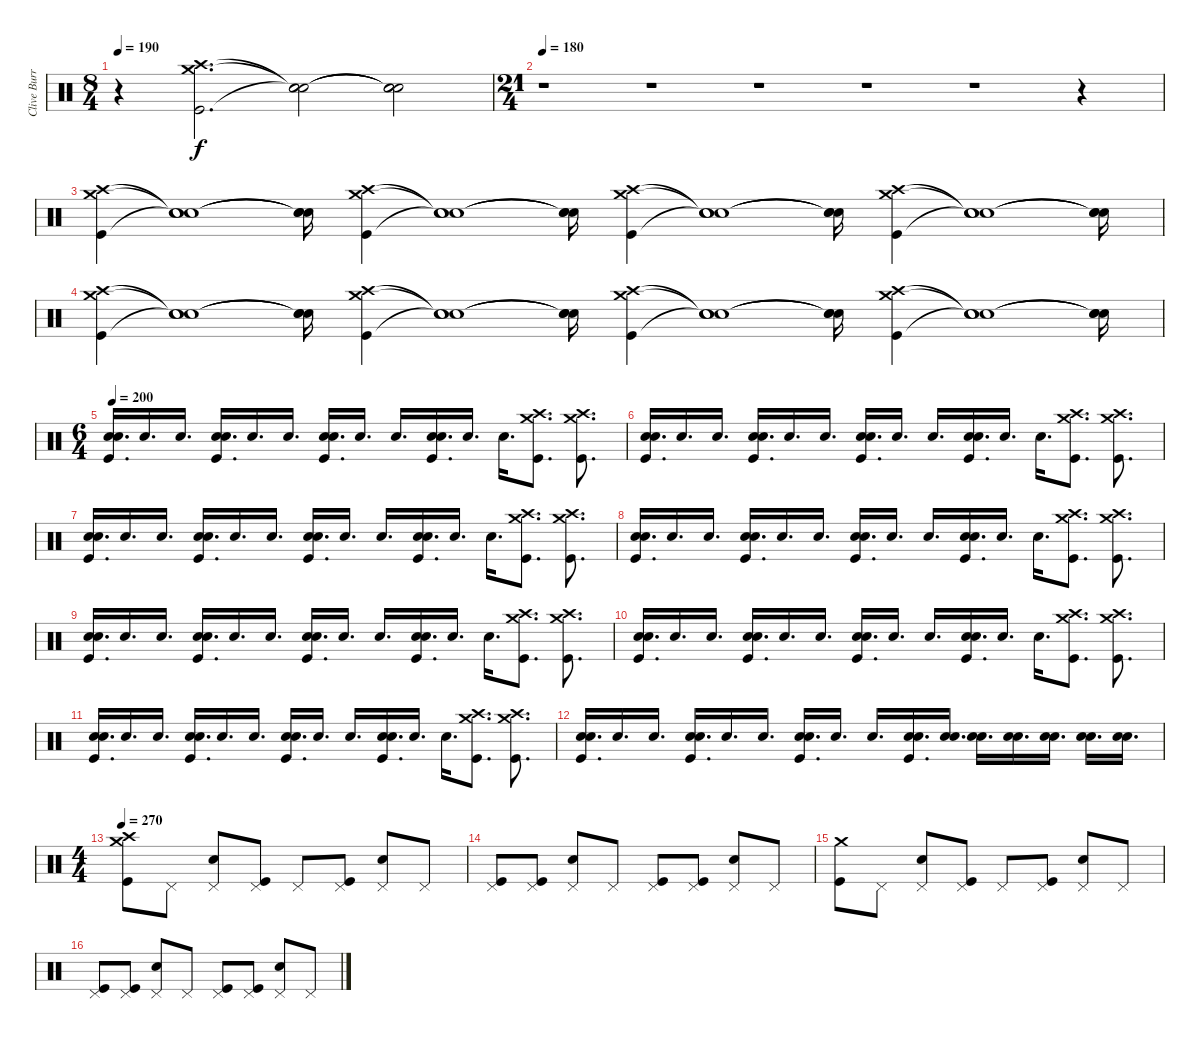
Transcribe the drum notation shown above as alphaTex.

\track ("Clive Burr" "Clive Burr") {instrument percussion}
\staff {score}
\articulation defaults
\ts (8 4)
\tempo 190
\clef neutral
\ks c
r.4{dy f} ("Crash medium (hit)" "Crash high (hit)" "Kick (hit)").2{d} ("Snare (hit)"{t} "Snare (hit)"{t} "Snare (hit)"{t}).2 ("Snare (hit)"{t} "Snare (hit)"{t} "Snare (hit)"{t}).2 |
\ts (21 4)
\tempo 180
r.1 r.1 r.1 r.1 r.1 r.4 |
("Crash medium (hit)" "Crash high (hit)" "Kick (hit)").4 ("Snare (hit)"{t} "Snare (hit)"{t} "Snare (hit)"{t}).1 ("Snare (hit)"{t} "Snare (hit)"{t} "Snare (hit)"{t}).16 ("Crash medium (hit)" "Crash high (hit)" "Kick (hit)").4 ("Snare (hit)"{t} "Snare (hit)"{t} "Snare (hit)"{t}).1 ("Snare (hit)"{t} "Snare (hit)"{t} "Snare (hit)"{t}).16 ("Crash medium (hit)" "Crash high (hit)" "Kick (hit)").4 ("Snare (hit)"{t} "Snare (hit)"{t} "Snare (hit)"{t}).1 ("Snare (hit)"{t} "Snare (hit)"{t} "Snare (hit)"{t}).16 ("Crash medium (hit)" "Crash high (hit)" "Kick (hit)").4 ("Snare (hit)"{t} "Snare (hit)"{t} "Snare (hit)"{t}).1 ("Snare (hit)"{t} "Snare (hit)"{t} "Snare (hit)"{t}).16 |
("Crash medium (hit)" "Crash high (hit)" "Kick (hit)").4 ("Snare (hit)"{t} "Snare (hit)"{t} "Snare (hit)"{t}).1 ("Snare (hit)"{t} "Snare (hit)"{t} "Snare (hit)"{t}).16 ("Crash medium (hit)" "Crash high (hit)" "Kick (hit)").4 ("Snare (hit)"{t} "Snare (hit)"{t} "Snare (hit)"{t}).1 ("Snare (hit)"{t} "Snare (hit)"{t} "Snare (hit)"{t}).16 ("Crash medium (hit)" "Crash high (hit)" "Kick (hit)").4 ("Snare (hit)"{t} "Snare (hit)"{t} "Snare (hit)"{t}).1 ("Snare (hit)"{t} "Snare (hit)"{t} "Snare (hit)"{t}).16 ("Crash medium (hit)" "Crash high (hit)" "Kick (hit)").4 ("Snare (hit)"{t} "Snare (hit)"{t} "Snare (hit)"{t}).1 ("Snare (hit)"{t} "Snare (hit)"{t} "Snare (hit)"{t}).16 |
\ts (6 4)
\tempo 200
("Snare (hit) 2" "Snare (hit) 2" "Kick (hit)").16{d} "Snare (hit) 2".16{d} "Snare (hit) 2".16{d} ("Snare (hit) 2" "Snare (hit) 2" "Kick (hit)").16{d} "Snare (hit) 2".16{d} "Snare (hit) 2".16{d} ("Snare (hit) 2" "Snare (hit) 2" "Kick (hit)").16{d} "Snare (hit) 2".16{d} "Snare (hit) 2".16{d} ("Snare (hit) 2" "Snare (hit) 2" "Kick (hit)").16{d} "Snare (hit) 2".16{d} "Snare (hit) 2".16{d} ("Crash medium (hit)" "Crash high (hit)" "Kick (hit)").8{d} ("Crash medium (hit)" "Crash high (hit)" "Kick (hit)").8{d} |
("Snare (hit) 2" "Snare (hit) 2" "Kick (hit)").16{d} "Snare (hit) 2".16{d} "Snare (hit) 2".16{d} ("Snare (hit) 2" "Snare (hit) 2" "Kick (hit)").16{d} "Snare (hit) 2".16{d} "Snare (hit) 2".16{d} ("Snare (hit) 2" "Snare (hit) 2" "Kick (hit)").16{d} "Snare (hit) 2".16{d} "Snare (hit) 2".16{d} ("Snare (hit) 2" "Snare (hit) 2" "Kick (hit)").16{d} "Snare (hit) 2".16{d} "Snare (hit) 2".16{d} ("Crash medium (hit)" "Crash high (hit)" "Kick (hit)").8{d} ("Crash medium (hit)" "Crash high (hit)" "Kick (hit)").8{d} |
("Snare (hit) 2" "Snare (hit) 2" "Kick (hit)").16{d} "Snare (hit) 2".16{d} "Snare (hit) 2".16{d} ("Snare (hit) 2" "Snare (hit) 2" "Kick (hit)").16{d} "Snare (hit) 2".16{d} "Snare (hit) 2".16{d} ("Snare (hit) 2" "Snare (hit) 2" "Kick (hit)").16{d} "Snare (hit) 2".16{d} "Snare (hit) 2".16{d} ("Snare (hit) 2" "Snare (hit) 2" "Kick (hit)").16{d} "Snare (hit) 2".16{d} "Snare (hit) 2".16{d} ("Crash medium (hit)" "Crash high (hit)" "Kick (hit)").8{d} ("Crash medium (hit)" "Crash high (hit)" "Kick (hit)").8{d} |
("Snare (hit) 2" "Snare (hit) 2" "Kick (hit)").16{d} "Snare (hit) 2".16{d} "Snare (hit) 2".16{d} ("Snare (hit) 2" "Snare (hit) 2" "Kick (hit)").16{d} "Snare (hit) 2".16{d} "Snare (hit) 2".16{d} ("Snare (hit) 2" "Snare (hit) 2" "Kick (hit)").16{d} "Snare (hit) 2".16{d} "Snare (hit) 2".16{d} ("Snare (hit) 2" "Snare (hit) 2" "Kick (hit)").16{d} "Snare (hit) 2".16{d} "Snare (hit) 2".16{d} ("Crash medium (hit)" "Crash high (hit)" "Kick (hit)").8{d} ("Crash medium (hit)" "Crash high (hit)" "Kick (hit)").8{d} |
("Snare (hit) 2" "Snare (hit) 2" "Kick (hit)").16{d} "Snare (hit) 2".16{d} "Snare (hit) 2".16{d} ("Snare (hit) 2" "Snare (hit) 2" "Kick (hit)").16{d} "Snare (hit) 2".16{d} "Snare (hit) 2".16{d} ("Snare (hit) 2" "Snare (hit) 2" "Kick (hit)").16{d} "Snare (hit) 2".16{d} "Snare (hit) 2".16{d} ("Snare (hit) 2" "Snare (hit) 2" "Kick (hit)").16{d} "Snare (hit) 2".16{d} "Snare (hit) 2".16{d} ("Crash medium (hit)" "Crash high (hit)" "Kick (hit)").8{d} ("Crash medium (hit)" "Crash high (hit)" "Kick (hit)").8{d} |
("Snare (hit) 2" "Snare (hit) 2" "Kick (hit)").16{d} "Snare (hit) 2".16{d} "Snare (hit) 2".16{d} ("Snare (hit) 2" "Snare (hit) 2" "Kick (hit)").16{d} "Snare (hit) 2".16{d} "Snare (hit) 2".16{d} ("Snare (hit) 2" "Snare (hit) 2" "Kick (hit)").16{d} "Snare (hit) 2".16{d} "Snare (hit) 2".16{d} ("Snare (hit) 2" "Snare (hit) 2" "Kick (hit)").16{d} "Snare (hit) 2".16{d} "Snare (hit) 2".16{d} ("Crash medium (hit)" "Crash high (hit)" "Kick (hit)").8{d} ("Crash medium (hit)" "Crash high (hit)" "Kick (hit)").8{d} |
("Snare (hit) 2" "Snare (hit) 2" "Kick (hit)").16{d} "Snare (hit) 2".16{d} "Snare (hit) 2".16{d} ("Snare (hit) 2" "Snare (hit) 2" "Kick (hit)").16{d} "Snare (hit) 2".16{d} "Snare (hit) 2".16{d} ("Snare (hit) 2" "Snare (hit) 2" "Kick (hit)").16{d} "Snare (hit) 2".16{d} "Snare (hit) 2".16{d} ("Snare (hit) 2" "Snare (hit) 2" "Kick (hit)").16{d} "Snare (hit) 2".16{d} "Snare (hit) 2".16{d} ("Crash medium (hit)" "Crash high (hit)" "Kick (hit)").8{d} ("Crash medium (hit)" "Crash high (hit)" "Kick (hit)").8{d} |
("Snare (hit) 2" "Snare (hit) 2" "Kick (hit)").16{d} "Snare (hit) 2".16{d} "Snare (hit) 2".16{d} ("Snare (hit) 2" "Snare (hit) 2" "Kick (hit)").16{d} "Snare (hit) 2".16{d} "Snare (hit) 2".16{d} ("Snare (hit) 2" "Snare (hit) 2" "Kick (hit)").16{d} "Snare (hit) 2".16{d} "Snare (hit) 2".16{d} ("Snare (hit) 2" "Snare (hit) 2" "Kick (hit)").16{d} ("Snare (hit) 2" "Snare (hit) 2").16{d} ("Snare (hit) 2" "Snare (hit) 2").16{d} ("Snare (hit) 2" "Snare (hit) 2").16{d} ("Snare (hit) 2" "Snare (hit) 2").16{d} ("Snare (hit) 2" "Snare (hit) 2").16{d} ("Snare (hit) 2" "Snare (hit) 2").16{d} |
\ts (4 4)
\tempo 260
\tempo 270
("Crash medium (hit)" "Crash high (hit)" "Kick (hit)").8 "Pedal Hi-Hat (hit)".8 ("Pedal Hi-Hat (hit)" "Snare (hit) 2").8 ("Pedal Hi-Hat (hit)" "Kick (hit)").8 "Pedal Hi-Hat (hit)".8 ("Pedal Hi-Hat (hit)" "Kick (hit)").8 ("Pedal Hi-Hat (hit)" "Snare (hit) 2").8 "Pedal Hi-Hat (hit)".8 |
("Pedal Hi-Hat (hit)" "Kick (hit)").8 ("Pedal Hi-Hat (hit)" "Kick (hit)").8 ("Pedal Hi-Hat (hit)" "Snare (hit) 2").8 "Pedal Hi-Hat (hit)".8 ("Pedal Hi-Hat (hit)" "Kick (hit)").8 ("Pedal Hi-Hat (hit)" "Kick (hit)").8 ("Pedal Hi-Hat (hit)" "Snare (hit) 2").8 "Pedal Hi-Hat (hit)".8 |
("Crash medium (hit)" "Kick (hit)").8 "Pedal Hi-Hat (hit)".8 ("Pedal Hi-Hat (hit)" "Snare (hit) 2").8 ("Pedal Hi-Hat (hit)" "Kick (hit)").8 "Pedal Hi-Hat (hit)".8 ("Pedal Hi-Hat (hit)" "Kick (hit)").8 ("Pedal Hi-Hat (hit)" "Snare (hit) 2").8 "Pedal Hi-Hat (hit)".8 |
("Pedal Hi-Hat (hit)" "Kick (hit)").8 ("Pedal Hi-Hat (hit)" "Kick (hit)").8 ("Pedal Hi-Hat (hit)" "Snare (hit) 2").8 "Pedal Hi-Hat (hit)".8 ("Pedal Hi-Hat (hit)" "Kick (hit)").8 ("Pedal Hi-Hat (hit)" "Kick (hit)").8 ("Pedal Hi-Hat (hit)" "Snare (hit) 2").8 "Pedal Hi-Hat (hit)".8
